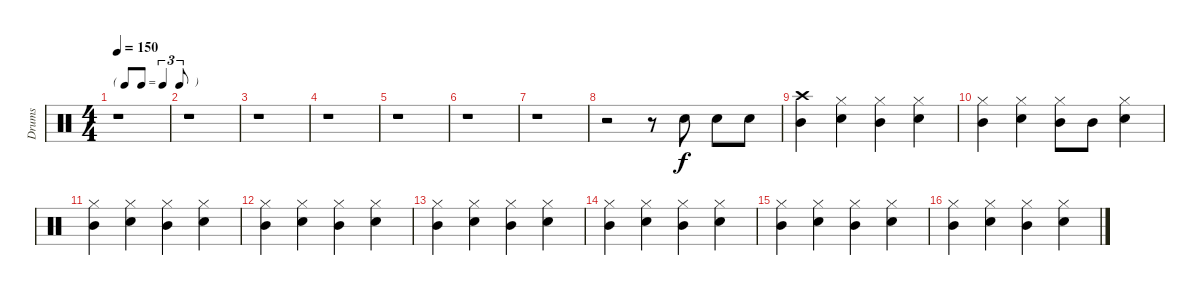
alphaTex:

\track ("Drums" "Drums") {instrument percussion}
\staff {score}
\articulation defaults
\ts (4 4)
\tf triplet8th
\tempo 150
\clef neutral
\ks c
r.1{dy f} |
r.1 |
r.1 |
r.1 |
r.1 |
r.1 |
r.1 |
r.2 r.8 "Electric Snare (hit)".8 "Snare (hit) 2".8 "Electric Snare (hit)".8 |
("Crash high (hit)" "Mid Tom (hit)").4 ("Snare (hit) 2" "Hi-Hat (closed)").4 ("Mid Tom (hit)" "Hi-Hat (closed)").4 ("Snare (hit) 2" "Hi-Hat (closed)").4 |
("Mid Tom (hit)" "Hi-Hat (closed)").4 ("Snare (hit) 2" "Hi-Hat (closed)").4 ("Mid Tom (hit)" "Hi-Hat (closed)").8 "Mid Tom (hit)".8 ("Snare (hit) 2" "Hi-Hat (closed)").4 |
("Mid Tom (hit)" "Hi-Hat (closed)").4 ("Snare (hit) 2" "Hi-Hat (closed)").4 ("Mid Tom (hit)" "Hi-Hat (closed)").4 ("Snare (hit) 2" "Hi-Hat (closed)").4 |
("Mid Tom (hit)" "Hi-Hat (closed)").4 ("Snare (hit) 2" "Hi-Hat (closed)").4 ("Mid Tom (hit)" "Hi-Hat (closed)").4 ("Snare (hit) 2" "Hi-Hat (closed)").4 |
("Mid Tom (hit)" "Hi-Hat (closed)").4 ("Snare (hit) 2" "Hi-Hat (closed)").4 ("Mid Tom (hit)" "Hi-Hat (closed)").4 ("Snare (hit) 2" "Hi-Hat (closed)").4 |
("Mid Tom (hit)" "Hi-Hat (closed)").4 ("Snare (hit) 2" "Hi-Hat (closed)").4 ("Mid Tom (hit)" "Hi-Hat (closed)").4 ("Snare (hit) 2" "Hi-Hat (closed)").4 |
("Mid Tom (hit)" "Hi-Hat (closed)").4 ("Snare (hit) 2" "Hi-Hat (closed)").4 ("Mid Tom (hit)" "Hi-Hat (closed)").4 ("Snare (hit) 2" "Hi-Hat (closed)").4 |
("Mid Tom (hit)" "Hi-Hat (closed)").4 ("Snare (hit) 2" "Hi-Hat (closed)").4 ("Mid Tom (hit)" "Hi-Hat (closed)").4 ("Snare (hit) 2" "Hi-Hat (closed)").4
